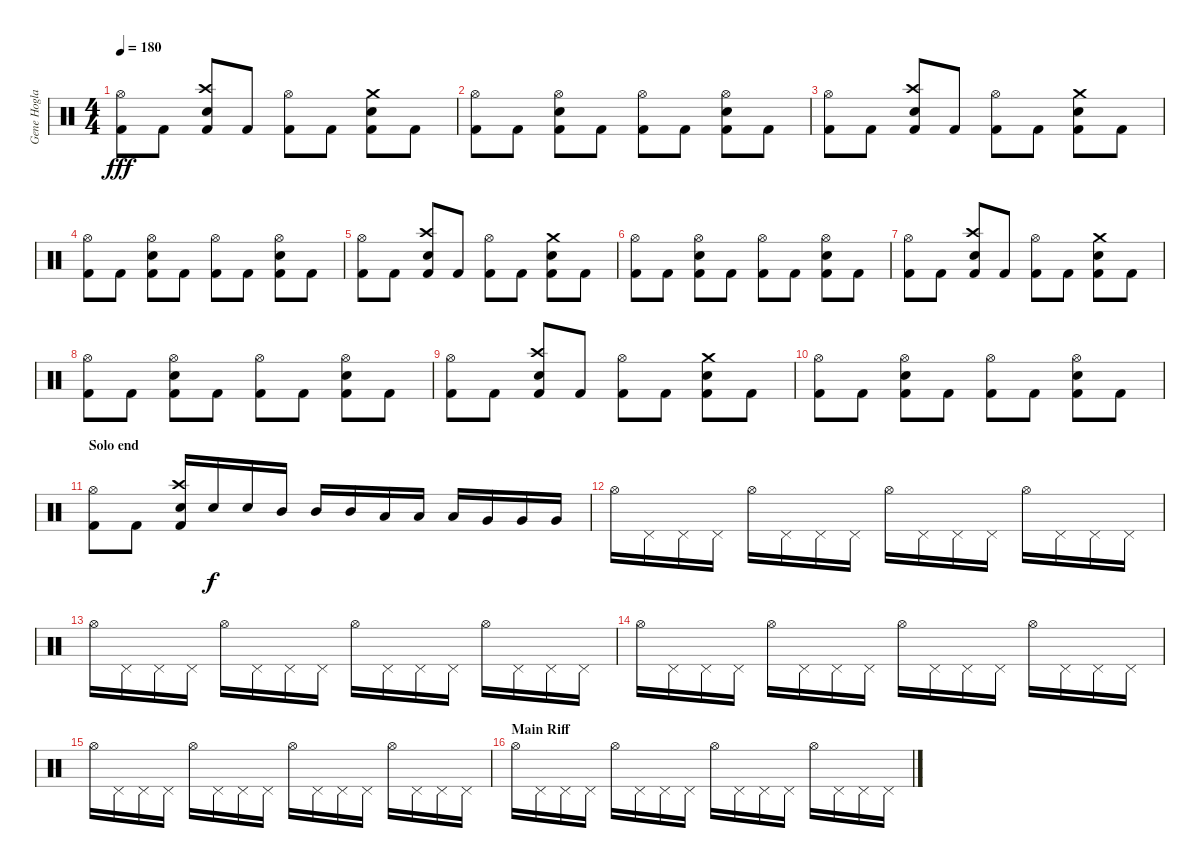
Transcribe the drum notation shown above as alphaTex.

\track ("Gene Hoglan" "Gene Hogla") {instrument percussion}
\staff {score}
\articulation defaults
\ts (4 4)
\tempo 180
\clef neutral
\ks c
("Hi-Hat (open)" "Kick (hit) 2").8{dy fff} "Kick (hit) 2".8 ("Crash high (hit)" "Snare (hit) 2" "Kick (hit) 2").8 "Kick (hit) 2".8 ("Hi-Hat (open)" "Kick (hit) 2").8 "Kick (hit) 2".8 ("Crash medium (hit)" "Snare (hit) 2" "Kick (hit) 2").8 "Kick (hit) 2".8 |
("Hi-Hat (open)" "Kick (hit) 2").8 "Kick (hit) 2".8 ("Hi-Hat (open)" "Snare (hit) 2" "Kick (hit) 2").8 "Kick (hit) 2".8 ("Hi-Hat (open)" "Kick (hit) 2").8 "Kick (hit) 2".8 ("Hi-Hat (open)" "Snare (hit) 2" "Kick (hit) 2").8 "Kick (hit) 2".8 |
("Hi-Hat (open)" "Kick (hit) 2").8 "Kick (hit) 2".8 ("Crash high (hit)" "Snare (hit) 2" "Kick (hit) 2").8 "Kick (hit) 2".8 ("Hi-Hat (open)" "Kick (hit) 2").8 "Kick (hit) 2".8 ("Crash medium (hit)" "Snare (hit) 2" "Kick (hit) 2").8 "Kick (hit) 2".8 |
("Hi-Hat (open)" "Kick (hit) 2").8 "Kick (hit) 2".8 ("Hi-Hat (open)" "Snare (hit) 2" "Kick (hit) 2").8 "Kick (hit) 2".8 ("Hi-Hat (open)" "Kick (hit) 2").8 "Kick (hit) 2".8 ("Hi-Hat (open)" "Snare (hit) 2" "Kick (hit) 2").8 "Kick (hit) 2".8 |
("Hi-Hat (open)" "Kick (hit) 2").8 "Kick (hit) 2".8 ("Crash high (hit)" "Snare (hit) 2" "Kick (hit) 2").8 "Kick (hit) 2".8 ("Hi-Hat (open)" "Kick (hit) 2").8 "Kick (hit) 2".8 ("Crash medium (hit)" "Snare (hit) 2" "Kick (hit) 2").8 "Kick (hit) 2".8 |
("Hi-Hat (open)" "Kick (hit) 2").8 "Kick (hit) 2".8 ("Hi-Hat (open)" "Snare (hit) 2" "Kick (hit) 2").8 "Kick (hit) 2".8 ("Hi-Hat (open)" "Kick (hit) 2").8 "Kick (hit) 2".8 ("Hi-Hat (open)" "Snare (hit) 2" "Kick (hit) 2").8 "Kick (hit) 2".8 |
("Hi-Hat (open)" "Kick (hit) 2").8 "Kick (hit) 2".8 ("Crash high (hit)" "Snare (hit) 2" "Kick (hit) 2").8 "Kick (hit) 2".8 ("Hi-Hat (open)" "Kick (hit) 2").8 "Kick (hit) 2".8 ("Crash medium (hit)" "Snare (hit) 2" "Kick (hit) 2").8 "Kick (hit) 2".8 |
("Hi-Hat (open)" "Kick (hit) 2").8 "Kick (hit) 2".8 ("Hi-Hat (open)" "Snare (hit) 2" "Kick (hit) 2").8 "Kick (hit) 2".8 ("Hi-Hat (open)" "Kick (hit) 2").8 "Kick (hit) 2".8 ("Hi-Hat (open)" "Snare (hit) 2" "Kick (hit) 2").8 "Kick (hit) 2".8 |
("Hi-Hat (open)" "Kick (hit) 2").8 "Kick (hit) 2".8 ("Crash high (hit)" "Snare (hit) 2" "Kick (hit) 2").8 "Kick (hit) 2".8 ("Hi-Hat (open)" "Kick (hit) 2").8 "Kick (hit) 2".8 ("Crash medium (hit)" "Snare (hit) 2" "Kick (hit) 2").8 "Kick (hit) 2".8 |
("Hi-Hat (open)" "Kick (hit) 2").8 "Kick (hit) 2".8 ("Hi-Hat (open)" "Snare (hit) 2" "Kick (hit) 2").8 "Kick (hit) 2".8 ("Hi-Hat (open)" "Kick (hit) 2").8 "Kick (hit) 2".8 ("Hi-Hat (open)" "Snare (hit) 2" "Kick (hit) 2").8 "Kick (hit) 2".8 |
\section ("" "Solo end")
("Hi-Hat (open)" "Kick (hit) 2").8 "Kick (hit) 2".8 ("Crash high (hit)" "Snare (hit) 2" "Kick (hit) 2").16 "Snare (hit) 2".16{dy f} "Snare (hit) 2".16 "Mid Tom (hit)".16 "Mid Tom (hit)".16 "Mid Tom (hit)".16 "Low Tom (hit)".16 "Low Tom (hit)".16 "Low Tom (hit)".16 "Very Low Tom (hit)".16 "Very Low Tom (hit)".16 "Very Low Tom (hit)".16 |
"Hi-Hat (open)".16 "Pedal Hi-Hat (hit)".16 "Pedal Hi-Hat (hit)".16 "Pedal Hi-Hat (hit)".16 "Hi-Hat (open)".16 "Pedal Hi-Hat (hit)".16 "Pedal Hi-Hat (hit)".16 "Pedal Hi-Hat (hit)".16 "Hi-Hat (open)".16 "Pedal Hi-Hat (hit)".16 "Pedal Hi-Hat (hit)".16 "Pedal Hi-Hat (hit)".16 "Hi-Hat (open)".16 "Pedal Hi-Hat (hit)".16 "Pedal Hi-Hat (hit)".16 "Pedal Hi-Hat (hit)".16 |
"Hi-Hat (open)".16 "Pedal Hi-Hat (hit)".16 "Pedal Hi-Hat (hit)".16 "Pedal Hi-Hat (hit)".16 "Hi-Hat (open)".16 "Pedal Hi-Hat (hit)".16 "Pedal Hi-Hat (hit)".16 "Pedal Hi-Hat (hit)".16 "Hi-Hat (open)".16 "Pedal Hi-Hat (hit)".16 "Pedal Hi-Hat (hit)".16 "Pedal Hi-Hat (hit)".16 "Hi-Hat (open)".16 "Pedal Hi-Hat (hit)".16 "Pedal Hi-Hat (hit)".16 "Pedal Hi-Hat (hit)".16 |
"Hi-Hat (open)".16 "Pedal Hi-Hat (hit)".16 "Pedal Hi-Hat (hit)".16 "Pedal Hi-Hat (hit)".16 "Hi-Hat (open)".16 "Pedal Hi-Hat (hit)".16 "Pedal Hi-Hat (hit)".16 "Pedal Hi-Hat (hit)".16 "Hi-Hat (open)".16 "Pedal Hi-Hat (hit)".16 "Pedal Hi-Hat (hit)".16 "Pedal Hi-Hat (hit)".16 "Hi-Hat (open)".16 "Pedal Hi-Hat (hit)".16 "Pedal Hi-Hat (hit)".16 "Pedal Hi-Hat (hit)".16 |
"Hi-Hat (open)".16 "Pedal Hi-Hat (hit)".16 "Pedal Hi-Hat (hit)".16 "Pedal Hi-Hat (hit)".16 "Hi-Hat (open)".16 "Pedal Hi-Hat (hit)".16 "Pedal Hi-Hat (hit)".16 "Pedal Hi-Hat (hit)".16 "Hi-Hat (open)".16 "Pedal Hi-Hat (hit)".16 "Pedal Hi-Hat (hit)".16 "Pedal Hi-Hat (hit)".16 "Hi-Hat (open)".16 "Pedal Hi-Hat (hit)".16 "Pedal Hi-Hat (hit)".16 "Pedal Hi-Hat (hit)".16 |
\section ("" "Main Riff")
"Hi-Hat (open)".16 "Pedal Hi-Hat (hit)".16 "Pedal Hi-Hat (hit)".16 "Pedal Hi-Hat (hit)".16 "Hi-Hat (open)".16 "Pedal Hi-Hat (hit)".16 "Pedal Hi-Hat (hit)".16 "Pedal Hi-Hat (hit)".16 "Hi-Hat (open)".16 "Pedal Hi-Hat (hit)".16 "Pedal Hi-Hat (hit)".16 "Pedal Hi-Hat (hit)".16 "Hi-Hat (open)".16 "Pedal Hi-Hat (hit)".16 "Pedal Hi-Hat (hit)".16 "Pedal Hi-Hat (hit)".16
